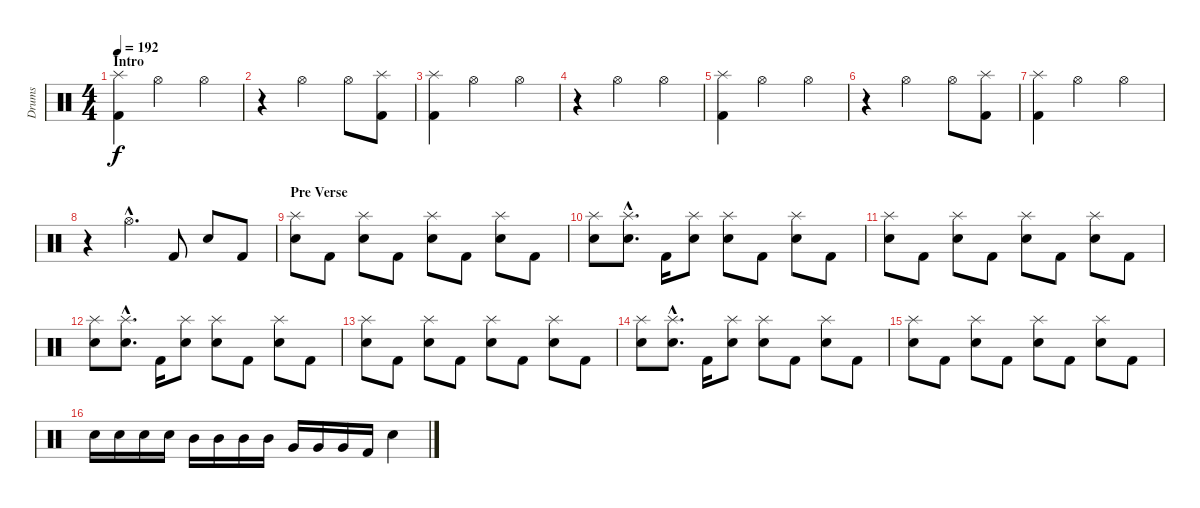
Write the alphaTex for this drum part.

\track ("Drums" "Drums") {instrument percussion}
\staff {score}
\articulation defaults
\ts (4 4)
\section ("" "Intro")
\tempo 192
\clef neutral
\ks c
("Splash (hit)" "Kick (hit) 2").4{dy f} "Hi-Hat (open)".2 "Hi-Hat (open)".4 |
r.4 "Hi-Hat (open)".2 "Hi-Hat (open)".8 ("Splash (hit)" "Kick (hit) 2").8 |
("Splash (hit)" "Kick (hit) 2").4 "Hi-Hat (open)".2 "Hi-Hat (open)".4 |
r.4 "Hi-Hat (open)".2 "Hi-Hat (open)".4 |
("Splash (hit)" "Kick (hit) 2").4 "Hi-Hat (open)".2 "Hi-Hat (open)".4 |
r.4 "Hi-Hat (open)".2 "Hi-Hat (open)".8 ("Splash (hit)" "Kick (hit) 2").8 |
("Splash (hit)" "Kick (hit) 2").4 "Hi-Hat (open)".2 "Hi-Hat (open)".4 |
r.4 "Hi-Hat (open)"{hac}.4{d} "Kick (hit) 2".8 "Electric Snare (hit)".8 "Kick (hit) 2".8 |
\section ("" "Pre Verse")
("Splash (hit)" "Electric Snare (hit)").8 "Kick (hit) 2".8 ("Splash (hit)" "Electric Snare (hit)").8 "Kick (hit) 2".8 ("Splash (hit)" "Electric Snare (hit)").8 "Kick (hit) 2".8 ("Splash (hit)" "Electric Snare (hit)").8 "Kick (hit) 2".8 |
("Splash (hit)" "Electric Snare (hit)").8 ("Splash (hit)"{hac} "Electric Snare (hit)"{hac}).8{d} "Kick (hit) 2".16 ("Splash (hit)" "Electric Snare (hit)").8 ("Splash (hit)" "Electric Snare (hit)").8 "Kick (hit) 2".8 ("Splash (hit)" "Electric Snare (hit)").8 "Kick (hit) 2".8 |
("Splash (hit)" "Electric Snare (hit)").8 "Kick (hit) 2".8 ("Splash (hit)" "Electric Snare (hit)").8 "Kick (hit) 2".8 ("Splash (hit)" "Electric Snare (hit)").8 "Kick (hit) 2".8 ("Splash (hit)" "Electric Snare (hit)").8 "Kick (hit) 2".8 |
("Splash (hit)" "Electric Snare (hit)").8 ("Splash (hit)"{hac} "Electric Snare (hit)"{hac}).8{d} "Kick (hit) 2".16 ("Splash (hit)" "Electric Snare (hit)").8 ("Splash (hit)" "Electric Snare (hit)").8 "Kick (hit) 2".8 ("Splash (hit)" "Electric Snare (hit)").8 "Kick (hit) 2".8 |
("Splash (hit)" "Electric Snare (hit)").8 "Kick (hit) 2".8 ("Splash (hit)" "Electric Snare (hit)").8 "Kick (hit) 2".8 ("Splash (hit)" "Electric Snare (hit)").8 "Kick (hit) 2".8 ("Splash (hit)" "Electric Snare (hit)").8 "Kick (hit) 2".8 |
("Splash (hit)" "Electric Snare (hit)").8 ("Splash (hit)"{hac} "Electric Snare (hit)"{hac}).8{d} "Kick (hit) 2".16 ("Splash (hit)" "Electric Snare (hit)").8 ("Splash (hit)" "Electric Snare (hit)").8 "Kick (hit) 2".8 ("Splash (hit)" "Electric Snare (hit)").8 "Kick (hit) 2".8 |
("Splash (hit)" "Electric Snare (hit)").8 "Kick (hit) 2".8 ("Splash (hit)" "Electric Snare (hit)").8 "Kick (hit) 2".8 ("Splash (hit)" "Electric Snare (hit)").8 "Kick (hit) 2".8 ("Splash (hit)" "Electric Snare (hit)").8 "Kick (hit) 2".8 |
"Electric Snare (hit)".16 "Electric Snare (hit)".16 "Electric Snare (hit)".16 "Electric Snare (hit)".16 "Mid Tom (hit)".16 "Mid Tom (hit)".16 "Mid Tom (hit)".16 "Mid Tom (hit)".16 "Very Low Tom (hit)".16 "Very Low Tom (hit)".16 "Very Low Tom (hit)".16 "Kick (hit) 2".16 "Electric Snare (hit)".4
